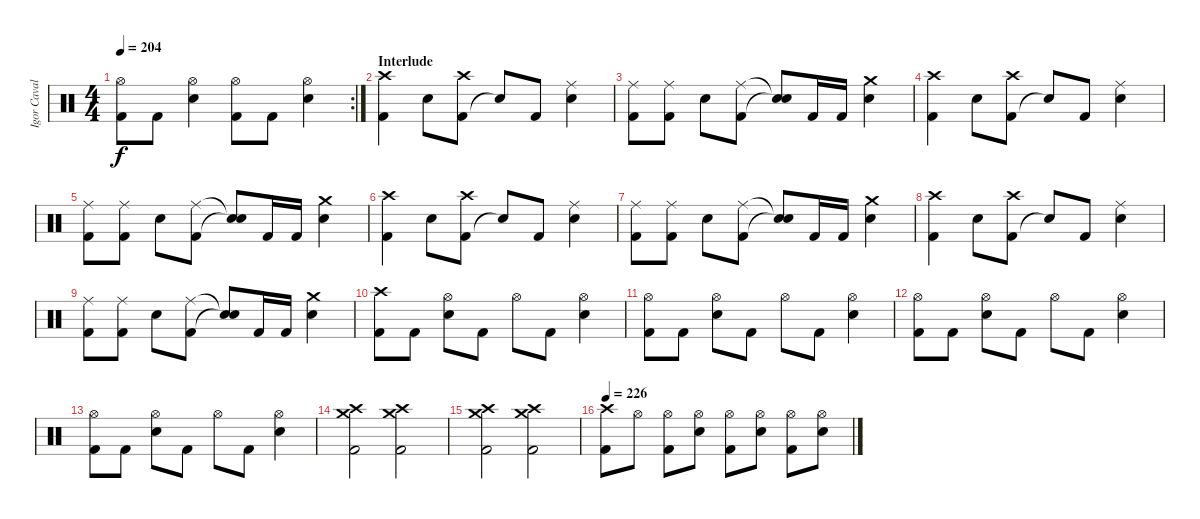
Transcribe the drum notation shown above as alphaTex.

\track ("Igor Cavalera" "Igor Caval") {instrument percussion}
\staff {score}
\articulation defaults
\rc 2
\ts (4 4)
\tempo 204
\clef neutral
\ks c
("Kick (hit) 2" "Hi-Hat (open)").8{dy f} "Kick (hit) 2".8 ("Snare (hit) 2" "Hi-Hat (open)").4 ("Kick (hit) 2" "Hi-Hat (open)").8 "Kick (hit) 2".8 ("Snare (hit) 2" "Hi-Hat (open)").4 |
\section ("" "Interlude")
("Kick (hit) 2" "Crash high (hit)").4 "Snare (hit) 2".8 ("Kick (hit) 2" "Crash high (hit)").8 "Snare (hit)"{t}.8 "Kick (hit) 2".8 ("Snare (hit) 2" "Ride (middle)").4 |
("Kick (hit) 2" "Ride (middle)").8 ("Kick (hit) 2" "Ride (middle)").8 "Snare (hit) 2".8 ("Kick (hit) 2" "Ride (middle)").8 ("Snare (hit)"{t} "Snare (hit)"{t}).8 "Kick (hit) 2".16 "Kick (hit) 2".16 ("Snare (hit) 2" "Crash medium (hit)").4 |
("Kick (hit) 2" "Crash high (hit)").4 "Snare (hit) 2".8 ("Kick (hit) 2" "Crash high (hit)").8 "Snare (hit)"{t}.8 "Kick (hit) 2".8 ("Snare (hit) 2" "Ride (middle)").4 |
("Kick (hit) 2" "Ride (middle)").8 ("Kick (hit) 2" "Ride (middle)").8 "Snare (hit) 2".8 ("Kick (hit) 2" "Ride (middle)").8 ("Snare (hit)"{t} "Snare (hit)"{t}).8 "Kick (hit) 2".16 "Kick (hit) 2".16 ("Snare (hit) 2" "Crash medium (hit)").4 |
("Kick (hit) 2" "Crash high (hit)").4 "Snare (hit) 2".8 ("Kick (hit) 2" "Crash high (hit)").8 "Snare (hit)"{t}.8 "Kick (hit) 2".8 ("Snare (hit) 2" "Ride (middle)").4 |
("Kick (hit) 2" "Ride (middle)").8 ("Kick (hit) 2" "Ride (middle)").8 "Snare (hit) 2".8 ("Kick (hit) 2" "Ride (middle)").8 ("Snare (hit)"{t} "Snare (hit)"{t}).8 "Kick (hit) 2".16 "Kick (hit) 2".16 ("Snare (hit) 2" "Crash medium (hit)").4 |
("Kick (hit) 2" "Crash high (hit)").4 "Snare (hit) 2".8 ("Kick (hit) 2" "Crash high (hit)").8 "Snare (hit)"{t}.8 "Kick (hit) 2".8 ("Snare (hit) 2" "Ride (middle)").4 |
("Kick (hit) 2" "Ride (middle)").8 ("Kick (hit) 2" "Ride (middle)").8 "Snare (hit) 2".8 ("Kick (hit) 2" "Ride (middle)").8 ("Snare (hit)"{t} "Snare (hit)"{t}).8 "Kick (hit) 2".16 "Kick (hit) 2".16 ("Snare (hit) 2" "Crash medium (hit)").4 |
("Kick (hit) 2" "Crash high (hit)").8 "Kick (hit) 2".8 ("Snare (hit) 2" "Hi-Hat (open)").8 "Kick (hit) 2".8 "Hi-Hat (open)".8 "Kick (hit) 2".8 ("Snare (hit) 2" "Hi-Hat (open)").4 |
("Kick (hit) 2" "Hi-Hat (open)").8 "Kick (hit) 2".8 ("Snare (hit) 2" "Hi-Hat (open)").8 "Kick (hit) 2".8 "Hi-Hat (open)".8 "Kick (hit) 2".8 ("Snare (hit) 2" "Hi-Hat (open)").4 |
("Kick (hit) 2" "Hi-Hat (open)").8 "Kick (hit) 2".8 ("Snare (hit) 2" "Hi-Hat (open)").8 "Kick (hit) 2".8 "Hi-Hat (open)".8 "Kick (hit) 2".8 ("Snare (hit) 2" "Hi-Hat (open)").4 |
("Kick (hit) 2" "Hi-Hat (open)").8 "Kick (hit) 2".8 ("Snare (hit) 2" "Hi-Hat (open)").8 "Kick (hit) 2".8 "Hi-Hat (open)".8 "Kick (hit) 2".8 ("Snare (hit) 2" "Hi-Hat (open)").4 |
("Kick (hit) 2" "Crash medium (hit)" "Crash high (hit)").2 ("Kick (hit) 2" "Crash medium (hit)" "Crash high (hit)").2 |
("Kick (hit) 2" "Crash medium (hit)" "Crash high (hit)").2 ("Kick (hit) 2" "Crash medium (hit)" "Crash high (hit)").2 |
\tempo 226
("Kick (hit) 2" "Crash high (hit)").8 "Hi-Hat (open)".8 ("Kick (hit) 2" "Hi-Hat (open)").8 ("Snare (hit) 2" "Hi-Hat (open)").8 ("Kick (hit) 2" "Hi-Hat (open)").8 ("Snare (hit) 2" "Hi-Hat (open)").8 ("Kick (hit) 2" "Hi-Hat (open)").8 ("Snare (hit) 2" "Hi-Hat (open)").8
